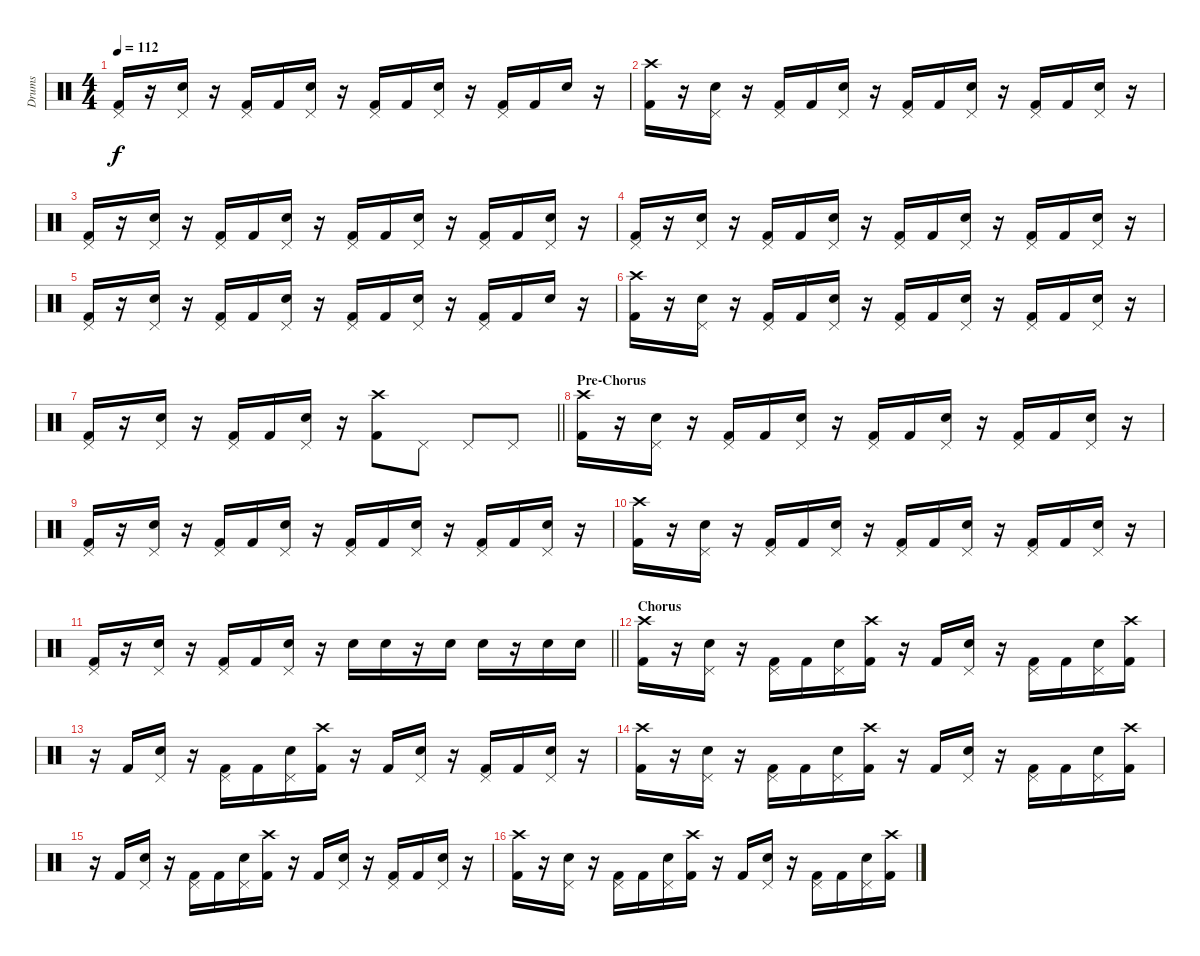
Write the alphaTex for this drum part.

\track ("Drums" "Drums") {instrument percussion}
\staff {score}
\articulation defaults
\ts (4 4)
\tempo 112
\clef neutral
\ks c
("Pedal Hi-Hat (hit)" "Kick (hit) 2").16{dy f} r.16 ("Pedal Hi-Hat (hit)" "Snare (hit) 2").16 r.16 ("Pedal Hi-Hat (hit)" "Kick (hit) 2").16 "Kick (hit) 2".16 ("Pedal Hi-Hat (hit)" "Snare (hit) 2").16 r.16 ("Pedal Hi-Hat (hit)" "Kick (hit) 2").16 "Kick (hit) 2".16 ("Pedal Hi-Hat (hit)" "Snare (hit) 2").16 r.16 ("Pedal Hi-Hat (hit)" "Kick (hit) 2").16 "Kick (hit) 2".16 "Snare (hit) 2".16 r.16 |
("Crash high (hit)" "Kick (hit) 2").16 r.16 ("Pedal Hi-Hat (hit)" "Snare (hit) 2").16 r.16 ("Pedal Hi-Hat (hit)" "Kick (hit) 2").16 "Kick (hit) 2".16 ("Pedal Hi-Hat (hit)" "Snare (hit) 2").16 r.16 ("Pedal Hi-Hat (hit)" "Kick (hit) 2").16 "Kick (hit) 2".16 ("Pedal Hi-Hat (hit)" "Snare (hit) 2").16 r.16 ("Pedal Hi-Hat (hit)" "Kick (hit) 2").16 "Kick (hit) 2".16 ("Pedal Hi-Hat (hit)" "Snare (hit) 2").16 r.16 |
("Pedal Hi-Hat (hit)" "Kick (hit) 2").16 r.16 ("Pedal Hi-Hat (hit)" "Snare (hit) 2").16 r.16 ("Pedal Hi-Hat (hit)" "Kick (hit) 2").16 "Kick (hit) 2".16 ("Pedal Hi-Hat (hit)" "Snare (hit) 2").16 r.16 ("Pedal Hi-Hat (hit)" "Kick (hit) 2").16 "Kick (hit) 2".16 ("Pedal Hi-Hat (hit)" "Snare (hit) 2").16 r.16 ("Pedal Hi-Hat (hit)" "Kick (hit) 2").16 "Kick (hit) 2".16 ("Pedal Hi-Hat (hit)" "Snare (hit) 2").16 r.16 |
("Pedal Hi-Hat (hit)" "Kick (hit) 2").16 r.16 ("Pedal Hi-Hat (hit)" "Snare (hit) 2").16 r.16 ("Pedal Hi-Hat (hit)" "Kick (hit) 2").16 "Kick (hit) 2".16 ("Pedal Hi-Hat (hit)" "Snare (hit) 2").16 r.16 ("Pedal Hi-Hat (hit)" "Kick (hit) 2").16 "Kick (hit) 2".16 ("Pedal Hi-Hat (hit)" "Snare (hit) 2").16 r.16 ("Pedal Hi-Hat (hit)" "Kick (hit) 2").16 "Kick (hit) 2".16 ("Pedal Hi-Hat (hit)" "Snare (hit) 2").16 r.16 |
("Pedal Hi-Hat (hit)" "Kick (hit) 2").16 r.16 ("Pedal Hi-Hat (hit)" "Snare (hit) 2").16 r.16 ("Pedal Hi-Hat (hit)" "Kick (hit) 2").16 "Kick (hit) 2".16 ("Pedal Hi-Hat (hit)" "Snare (hit) 2").16 r.16 ("Pedal Hi-Hat (hit)" "Kick (hit) 2").16 "Kick (hit) 2".16 ("Pedal Hi-Hat (hit)" "Snare (hit) 2").16 r.16 ("Pedal Hi-Hat (hit)" "Kick (hit) 2").16 "Kick (hit) 2".16 "Snare (hit) 2".16 r.16 |
("Crash high (hit)" "Kick (hit) 2").16 r.16 ("Pedal Hi-Hat (hit)" "Snare (hit) 2").16 r.16 ("Pedal Hi-Hat (hit)" "Kick (hit) 2").16 "Kick (hit) 2".16 ("Pedal Hi-Hat (hit)" "Snare (hit) 2").16 r.16 ("Pedal Hi-Hat (hit)" "Kick (hit) 2").16 "Kick (hit) 2".16 ("Pedal Hi-Hat (hit)" "Snare (hit) 2").16 r.16 ("Pedal Hi-Hat (hit)" "Kick (hit) 2").16 "Kick (hit) 2".16 ("Pedal Hi-Hat (hit)" "Snare (hit) 2").16 r.16 |
\barLineRight lightlight
("Pedal Hi-Hat (hit)" "Kick (hit) 2").16 r.16 ("Pedal Hi-Hat (hit)" "Snare (hit) 2").16 r.16 ("Pedal Hi-Hat (hit)" "Kick (hit) 2").16 "Kick (hit) 2".16 ("Pedal Hi-Hat (hit)" "Snare (hit) 2").16 r.16 ("Crash high (hit)" "Kick (hit) 2").8 "Pedal Hi-Hat (hit)".8 "Pedal Hi-Hat (hit)".8 "Pedal Hi-Hat (hit)".8 |
\section ("" "Pre-Chorus")
("Crash high (hit)" "Kick (hit) 2").16 r.16 ("Pedal Hi-Hat (hit)" "Snare (hit) 2").16 r.16 ("Pedal Hi-Hat (hit)" "Kick (hit) 2").16 "Kick (hit) 2".16 ("Pedal Hi-Hat (hit)" "Snare (hit) 2").16 r.16 ("Pedal Hi-Hat (hit)" "Kick (hit) 2").16 "Kick (hit) 2".16 ("Pedal Hi-Hat (hit)" "Snare (hit) 2").16 r.16 ("Pedal Hi-Hat (hit)" "Kick (hit) 2").16 "Kick (hit) 2".16 ("Pedal Hi-Hat (hit)" "Snare (hit) 2").16 r.16 |
("Pedal Hi-Hat (hit)" "Kick (hit) 2").16 r.16 ("Pedal Hi-Hat (hit)" "Snare (hit) 2").16 r.16 ("Pedal Hi-Hat (hit)" "Kick (hit) 2").16 "Kick (hit) 2".16 ("Pedal Hi-Hat (hit)" "Snare (hit) 2").16 r.16 ("Pedal Hi-Hat (hit)" "Kick (hit) 2").16 "Kick (hit) 2".16 ("Pedal Hi-Hat (hit)" "Snare (hit) 2").16 r.16 ("Pedal Hi-Hat (hit)" "Kick (hit) 2").16 "Kick (hit) 2".16 ("Pedal Hi-Hat (hit)" "Snare (hit) 2").16 r.16 |
("Crash high (hit)" "Kick (hit) 2").16 r.16 ("Pedal Hi-Hat (hit)" "Snare (hit) 2").16 r.16 ("Pedal Hi-Hat (hit)" "Kick (hit) 2").16 "Kick (hit) 2".16 ("Pedal Hi-Hat (hit)" "Snare (hit) 2").16 r.16 ("Pedal Hi-Hat (hit)" "Kick (hit) 2").16 "Kick (hit) 2".16 ("Pedal Hi-Hat (hit)" "Snare (hit) 2").16 r.16 ("Pedal Hi-Hat (hit)" "Kick (hit) 2").16 "Kick (hit) 2".16 ("Pedal Hi-Hat (hit)" "Snare (hit) 2").16 r.16 |
\barLineRight lightlight
("Pedal Hi-Hat (hit)" "Kick (hit) 2").16 r.16 ("Pedal Hi-Hat (hit)" "Snare (hit) 2").16 r.16 ("Pedal Hi-Hat (hit)" "Kick (hit) 2").16 "Kick (hit) 2".16 ("Pedal Hi-Hat (hit)" "Snare (hit) 2").16 r.16 "Snare (hit) 2".16 "Snare (hit) 2".16 r.16 "Snare (hit) 2".16 "Snare (hit) 2".16 r.16 "Snare (hit) 2".16 "Snare (hit) 2".16 |
\section ("" "Chorus")
("Crash high (hit)" "Kick (hit) 2").16 r.16 ("Pedal Hi-Hat (hit)" "Snare (hit) 2").16 r.16 ("Pedal Hi-Hat (hit)" "Kick (hit) 2").16 "Kick (hit) 2".16 ("Pedal Hi-Hat (hit)" "Snare (hit) 2").16 ("Crash high (hit)" "Kick (hit) 2").16 r.16 "Kick (hit) 2".16 ("Pedal Hi-Hat (hit)" "Snare (hit) 2").16 r.16 ("Pedal Hi-Hat (hit)" "Kick (hit) 2").16 "Kick (hit) 2".16 ("Pedal Hi-Hat (hit)" "Snare (hit) 2").16 ("Crash high (hit)" "Kick (hit) 2").16 |
r.16 "Kick (hit) 2".16 ("Pedal Hi-Hat (hit)" "Snare (hit) 2").16 r.16 ("Pedal Hi-Hat (hit)" "Kick (hit) 2").16 "Kick (hit) 2".16 ("Pedal Hi-Hat (hit)" "Snare (hit) 2").16 ("Crash high (hit)" "Kick (hit) 2").16 r.16 "Kick (hit) 2".16 ("Pedal Hi-Hat (hit)" "Snare (hit) 2").16 r.16 ("Pedal Hi-Hat (hit)" "Kick (hit) 2").16 "Kick (hit) 2".16 ("Pedal Hi-Hat (hit)" "Snare (hit) 2").16 r.16 |
("Crash high (hit)" "Kick (hit) 2").16 r.16 ("Pedal Hi-Hat (hit)" "Snare (hit) 2").16 r.16 ("Pedal Hi-Hat (hit)" "Kick (hit) 2").16 "Kick (hit) 2".16 ("Pedal Hi-Hat (hit)" "Snare (hit) 2").16 ("Crash high (hit)" "Kick (hit) 2").16 r.16 "Kick (hit) 2".16 ("Pedal Hi-Hat (hit)" "Snare (hit) 2").16 r.16 ("Pedal Hi-Hat (hit)" "Kick (hit) 2").16 "Kick (hit) 2".16 ("Pedal Hi-Hat (hit)" "Snare (hit) 2").16 ("Crash high (hit)" "Kick (hit) 2").16 |
r.16 "Kick (hit) 2".16 ("Pedal Hi-Hat (hit)" "Snare (hit) 2").16 r.16 ("Pedal Hi-Hat (hit)" "Kick (hit) 2").16 "Kick (hit) 2".16 ("Pedal Hi-Hat (hit)" "Snare (hit) 2").16 ("Crash high (hit)" "Kick (hit) 2").16 r.16 "Kick (hit) 2".16 ("Pedal Hi-Hat (hit)" "Snare (hit) 2").16 r.16 ("Pedal Hi-Hat (hit)" "Kick (hit) 2").16 "Kick (hit) 2".16 ("Pedal Hi-Hat (hit)" "Snare (hit) 2").16 r.16 |
("Crash high (hit)" "Kick (hit) 2").16 r.16 ("Pedal Hi-Hat (hit)" "Snare (hit) 2").16 r.16 ("Pedal Hi-Hat (hit)" "Kick (hit) 2").16 "Kick (hit) 2".16 ("Pedal Hi-Hat (hit)" "Snare (hit) 2").16 ("Crash high (hit)" "Kick (hit) 2").16 r.16 "Kick (hit) 2".16 ("Pedal Hi-Hat (hit)" "Snare (hit) 2").16 r.16 ("Pedal Hi-Hat (hit)" "Kick (hit) 2").16 "Kick (hit) 2".16 ("Pedal Hi-Hat (hit)" "Snare (hit) 2").16 ("Crash high (hit)" "Kick (hit) 2").16
